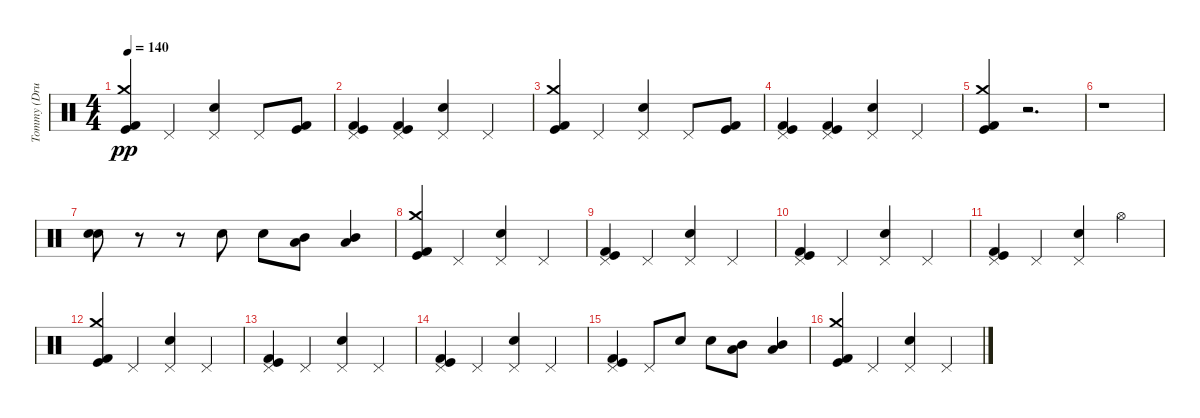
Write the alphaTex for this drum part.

\track ("Tommy (Drums)" "Tommy (Dru") {instrument percussion}
\staff {score}
\articulation defaults
\ts (4 4)
\tempo 140
\clef neutral
\ks c
("Kick (hit)" "Crash medium (hit)" "Kick (hit) 2").4{dy pp} "Pedal Hi-Hat (hit)".4 ("Pedal Hi-Hat (hit)" "Snare (hit) 2").4 "Pedal Hi-Hat (hit)".8 ("Kick (hit)" "Kick (hit) 2").8 |
("Pedal Hi-Hat (hit)" "Kick (hit)" "Kick (hit) 2").4 ("Pedal Hi-Hat (hit)" "Kick (hit)" "Kick (hit) 2").4 ("Snare (hit) 2" "Pedal Hi-Hat (hit)").4 "Pedal Hi-Hat (hit)".4 |
("Kick (hit)" "Crash medium (hit)" "Kick (hit) 2").4 "Pedal Hi-Hat (hit)".4 ("Pedal Hi-Hat (hit)" "Snare (hit) 2").4 "Pedal Hi-Hat (hit)".8 ("Kick (hit)" "Kick (hit) 2").8 |
("Pedal Hi-Hat (hit)" "Kick (hit)" "Kick (hit) 2").4 ("Pedal Hi-Hat (hit)" "Kick (hit)" "Kick (hit) 2").4 ("Snare (hit) 2" "Pedal Hi-Hat (hit)").4 "Pedal Hi-Hat (hit)".4 |
("Crash medium (hit)" "Kick (hit)" "Kick (hit) 2").4 r.2{d} |
r.1 |
("Snare (hit) 2" "Snare (hit) 2").8 r.8 r.8 "Snare (hit) 2".8 "Snare (hit) 2".8 ("Mid Tom (hit)" "Low Tom (hit)").8 ("Low Tom (hit)" "Mid Tom (hit)").4 |
("Kick (hit) 2" "Kick (hit)" "Crash medium (hit)").4 "Pedal Hi-Hat (hit)".4 ("Pedal Hi-Hat (hit)" "Snare (hit) 2").4 "Pedal Hi-Hat (hit)".4 |
("Pedal Hi-Hat (hit)" "Kick (hit) 2" "Kick (hit)").4 "Pedal Hi-Hat (hit)".4 ("Pedal Hi-Hat (hit)" "Snare (hit) 2").4 "Pedal Hi-Hat (hit)".4 |
("Pedal Hi-Hat (hit)" "Kick (hit) 2" "Kick (hit)").4 "Pedal Hi-Hat (hit)".4 ("Pedal Hi-Hat (hit)" "Snare (hit) 2").4 "Pedal Hi-Hat (hit)".4 |
("Pedal Hi-Hat (hit)" "Kick (hit) 2" "Kick (hit)").4 "Pedal Hi-Hat (hit)".4 ("Pedal Hi-Hat (hit)" "Snare (hit) 2").4 "Hi-Hat (open)".4 |
("Kick (hit) 2" "Kick (hit)" "Crash medium (hit)").4 "Pedal Hi-Hat (hit)".4 ("Pedal Hi-Hat (hit)" "Snare (hit) 2").4 "Pedal Hi-Hat (hit)".4 |
("Pedal Hi-Hat (hit)" "Kick (hit) 2" "Kick (hit)").4 "Pedal Hi-Hat (hit)".4 ("Pedal Hi-Hat (hit)" "Snare (hit) 2").4 "Pedal Hi-Hat (hit)".4 |
("Pedal Hi-Hat (hit)" "Kick (hit) 2" "Kick (hit)").4 "Pedal Hi-Hat (hit)".4 ("Pedal Hi-Hat (hit)" "Snare (hit) 2").4 "Pedal Hi-Hat (hit)".4 |
("Pedal Hi-Hat (hit)" "Kick (hit) 2" "Kick (hit)").4 "Pedal Hi-Hat (hit)".8 "Snare (hit) 2".8 "Snare (hit) 2".8 ("Low Tom (hit)" "Mid Tom (hit)").8 ("Low Tom (hit)" "Mid Tom (hit)").4 |
("Kick (hit) 2" "Kick (hit)" "Crash medium (hit)").4 "Pedal Hi-Hat (hit)".4 ("Pedal Hi-Hat (hit)" "Snare (hit) 2").4 "Pedal Hi-Hat (hit)".4
